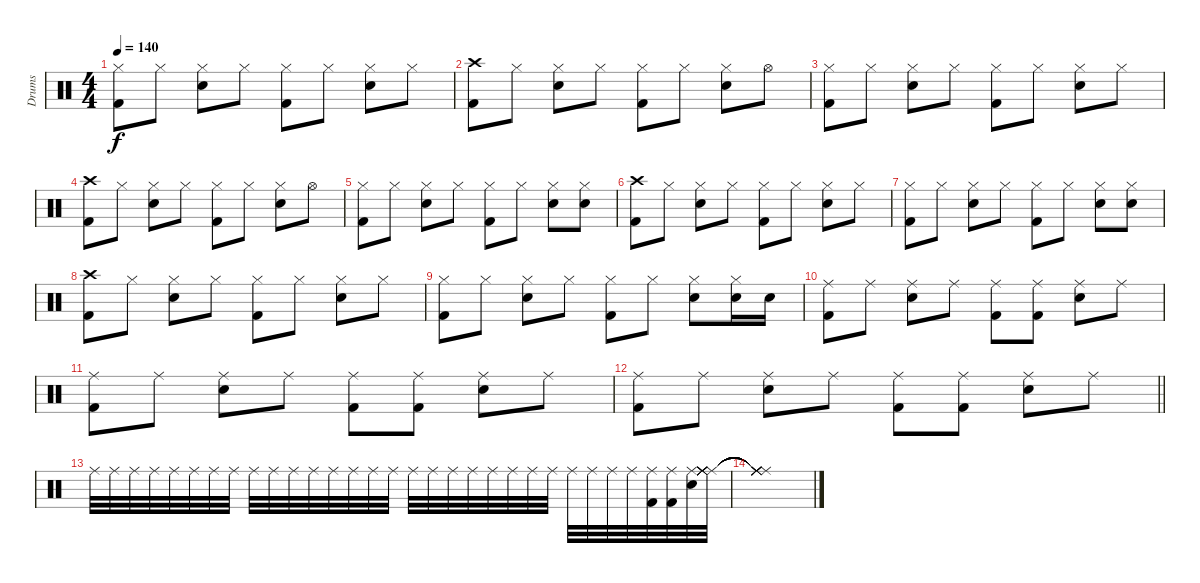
\track ("Drums" "Drums") {instrument percussion}
\staff {score}
\articulation defaults
\ts (4 4)
\tempo 140
\clef neutral
\ks c
("Kick (hit) 2" "Hi-Hat (closed)").8{dy f} "Hi-Hat (closed)".8 ("Snare (hit) 2" "Hi-Hat (closed)").8 "Hi-Hat (closed)".8 ("Kick (hit) 2" "Hi-Hat (closed)").8 "Hi-Hat (closed)".8 ("Snare (hit) 2" "Hi-Hat (closed)").8 "Hi-Hat (closed)".8 |
("Crash high (hit)" "Kick (hit) 2").8 "Hi-Hat (closed)".8 ("Snare (hit) 2" "Hi-Hat (closed)").8 "Hi-Hat (closed)".8 ("Kick (hit) 2" "Hi-Hat (closed)").8 "Hi-Hat (closed)".8 ("Snare (hit) 2" "Hi-Hat (closed)").8 "Hi-Hat (open)".8 |
("Kick (hit) 2" "Hi-Hat (closed)").8 "Hi-Hat (closed)".8 ("Snare (hit) 2" "Hi-Hat (closed)").8 "Hi-Hat (closed)".8 ("Kick (hit) 2" "Hi-Hat (closed)").8 "Hi-Hat (closed)".8 ("Snare (hit) 2" "Hi-Hat (closed)").8 "Hi-Hat (closed)".8 |
("Crash high (hit)" "Kick (hit) 2").8 "Hi-Hat (closed)".8 ("Snare (hit) 2" "Hi-Hat (closed)").8 "Hi-Hat (closed)".8 ("Kick (hit) 2" "Hi-Hat (closed)").8 "Hi-Hat (closed)".8 ("Snare (hit) 2" "Hi-Hat (closed)").8 "Hi-Hat (open)".8 |
("Kick (hit) 2" "Hi-Hat (closed)").8 "Hi-Hat (closed)".8 ("Snare (hit) 2" "Hi-Hat (closed)").8 "Hi-Hat (closed)".8 ("Kick (hit) 2" "Hi-Hat (closed)").8 "Hi-Hat (closed)".8 ("Snare (hit) 2" "Hi-Hat (closed)").8 ("Snare (hit) 2" "Hi-Hat (closed)").8 |
("Crash high (hit)" "Kick (hit) 2").8 "Hi-Hat (closed)".8 ("Snare (hit) 2" "Hi-Hat (closed)").8 "Hi-Hat (closed)".8 ("Kick (hit) 2" "Hi-Hat (closed)").8 "Hi-Hat (closed)".8 ("Snare (hit) 2" "Hi-Hat (closed)").8 "Hi-Hat (closed)".8 |
("Kick (hit) 2" "Hi-Hat (closed)").8 "Hi-Hat (closed)".8 ("Snare (hit) 2" "Hi-Hat (closed)").8 "Hi-Hat (closed)".8 ("Kick (hit) 2" "Hi-Hat (closed)").8 "Hi-Hat (closed)".8 ("Snare (hit) 2" "Hi-Hat (closed)").8 ("Snare (hit) 2" "Hi-Hat (closed)").8 |
("Crash high (hit)" "Kick (hit) 2").8 "Hi-Hat (closed)".8 ("Snare (hit) 2" "Hi-Hat (closed)").8 "Hi-Hat (closed)".8 ("Kick (hit) 2" "Hi-Hat (closed)").8 "Hi-Hat (closed)".8 ("Snare (hit) 2" "Hi-Hat (closed)").8 "Hi-Hat (closed)".8 |
("Kick (hit) 2" "Hi-Hat (closed)").8 "Hi-Hat (closed)".8 ("Snare (hit) 2" "Hi-Hat (closed)").8 "Hi-Hat (closed)".8 ("Kick (hit) 2" "Hi-Hat (closed)").8 "Hi-Hat (closed)".8 ("Snare (hit) 2" "Hi-Hat (closed)").8 ("Snare (hit) 2" "Hi-Hat (closed)").16 "Snare (hit) 2".16 |
("Ride (middle)" "Kick (hit) 2").8 "Ride (middle)".8 ("Ride (middle)" "Snare (hit) 2").8 "Ride (middle)".8 ("Ride (middle)" "Kick (hit) 2").8 ("Ride (middle)" "Kick (hit) 2").8 ("Ride (middle)" "Snare (hit) 2").8 "Ride (middle)".8 |
("Kick (hit) 2" "Ride (middle)").8 "Ride (middle)".8 ("Snare (hit) 2" "Ride (middle)").8 "Ride (middle)".8 ("Kick (hit) 2" "Ride (middle)").8 ("Kick (hit) 2" "Ride (middle)").8 ("Ride (middle)" "Snare (hit) 2").8 "Ride (middle)".8 |
\barLineRight lightlight
("Ride (middle)" "Kick (hit) 2").8 "Ride (middle)".8 ("Ride (middle)" "Snare (hit) 2").8 "Ride (middle)".8 ("Ride (middle)" "Kick (hit) 2").8 ("Ride (middle)" "Kick (hit) 2").8 ("Ride (middle)" "Snare (hit) 2").8 "Ride (middle)".8 |
"Ride (middle)".32 "Ride (middle)".32 "Ride (middle)".32 "Ride (middle)".32 "Ride (middle)".32 "Ride (middle)".32 "Ride (middle)".32 "Ride (middle)".32 "Ride (middle)".32 "Ride (middle)".32 "Ride (middle)".32 "Ride (middle)".32 "Ride (middle)".32 "Ride (middle)".32 "Ride (middle)".32 "Ride (middle)".32 "Ride (middle)".32 "Ride (middle)".32 "Ride (middle)".32 "Ride (middle)".32 "Ride (middle)".32 "Ride (middle)".32 "Ride (middle)".32 "Ride (middle)".32 "Ride (middle)".32 "Ride (middle)".32 "Ride (middle)".32 "Ride (middle)".32 ("Ride (middle)" "Kick (hit) 2").32 ("Ride (middle)" "Kick (hit) 2").32 ("Ride (middle)" "Snare (hit) 2").32 ("Ride (middle)" "Ride (middle)" "Ride (middle)" "Ride (middle)" "Ride (middle)" "Ride (middle)").32 |
("Ride (middle)"{t} "Ride (middle)"{t} "Ride (middle)"{t} "Ride (middle)"{t} "Ride (middle)"{t} "Ride (middle)"{t}).1
